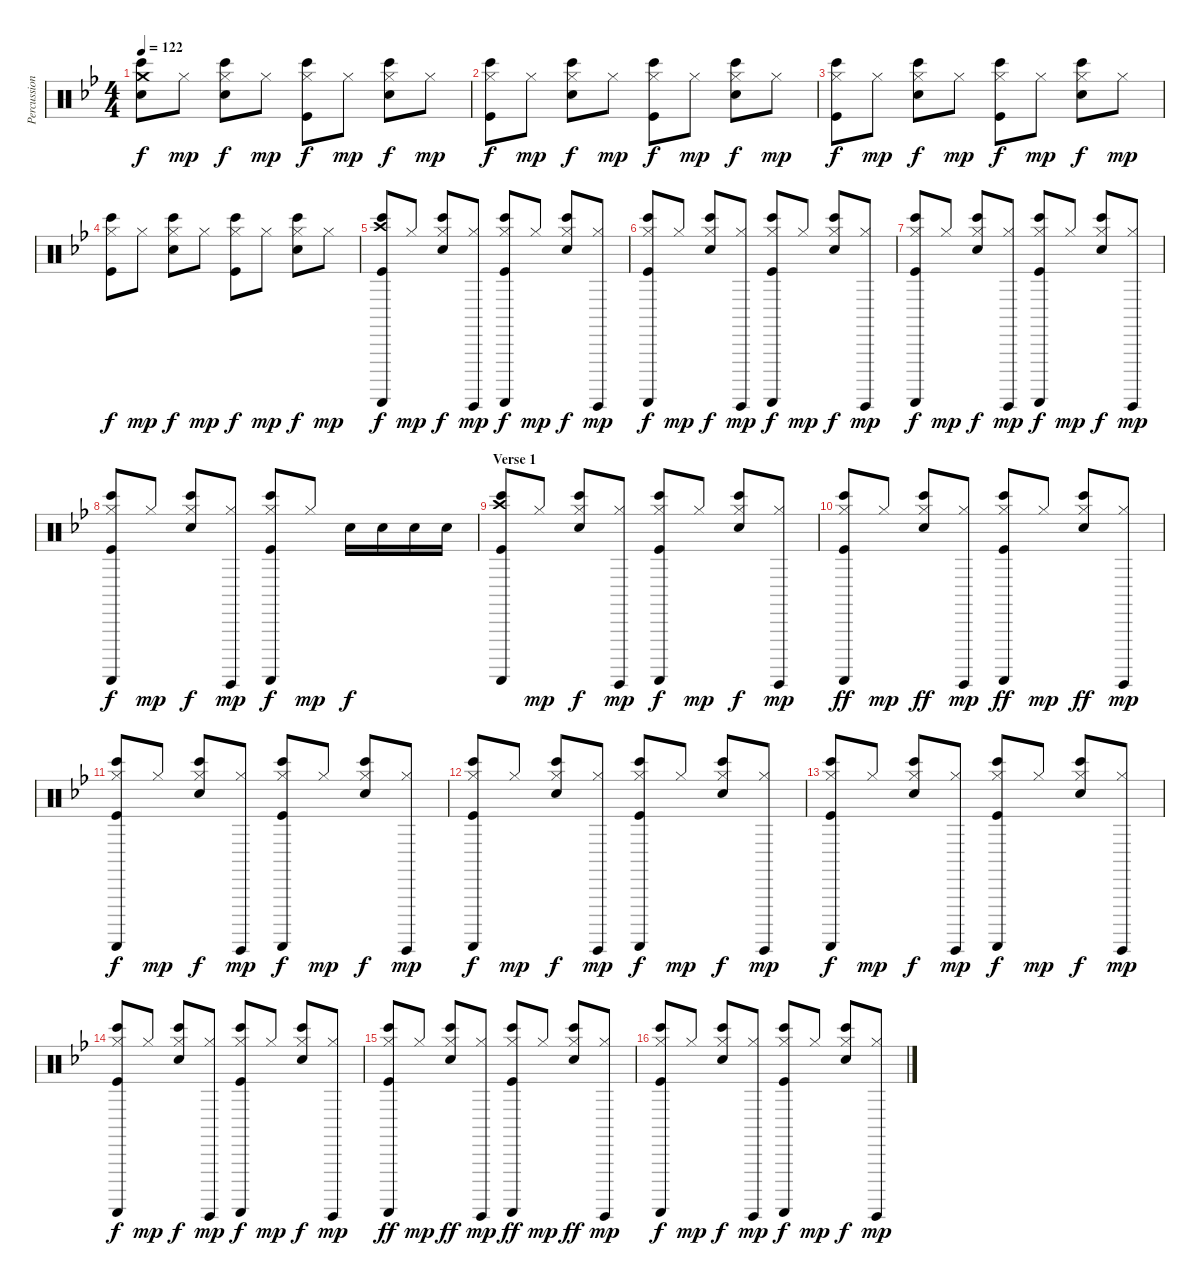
\track ("Percussions" "Percussion") {instrument percussion}
\staff {score}
\articulation defaults
\ts (4 4)
\tempo 122
\clef neutral
\ks bb
("Crash medium (hit)" "Bongo High (hit)" "Snare (hit) 2").8{dy f} "Hi-Hat (closed)".8{dy mp} ("Hi-Hat (closed)" "Bongo High (hit)" "Snare (hit) 2").8{dy f} "Hi-Hat (closed)".8{dy mp} ("Hi-Hat (closed)" "Bongo High (hit)" "Kick (hit)").8{dy f} "Hi-Hat (closed)".8{dy mp} ("Hi-Hat (closed)" "Bongo High (hit)" "Snare (hit) 2").8{dy f} "Hi-Hat (closed)".8{dy mp} |
("Hi-Hat (closed)" "Bongo High (hit)" "Kick (hit)").8{dy f} "Hi-Hat (closed)".8{dy mp} ("Hi-Hat (closed)" "Bongo High (hit)" "Snare (hit) 2").8{dy f} "Hi-Hat (closed)".8{dy mp} ("Hi-Hat (closed)" "Bongo High (hit)" "Kick (hit)").8{dy f} "Hi-Hat (closed)".8{dy mp} ("Hi-Hat (closed)" "Bongo High (hit)" "Snare (hit) 2").8{dy f} "Hi-Hat (closed)".8{dy mp} |
("Hi-Hat (closed)" "Bongo High (hit)" "Kick (hit)").8{dy f} "Hi-Hat (closed)".8{dy mp} ("Hi-Hat (closed)" "Bongo High (hit)" "Snare (hit) 2").8{dy f} "Hi-Hat (closed)".8{dy mp} ("Hi-Hat (closed)" "Bongo High (hit)" "Kick (hit)").8{dy f} "Hi-Hat (closed)".8{dy mp} ("Hi-Hat (closed)" "Bongo High (hit)" "Snare (hit) 2").8{dy f} "Hi-Hat (closed)".8{dy mp} |
("Hi-Hat (closed)" "Bongo High (hit)" "Kick (hit)").8{dy f} "Hi-Hat (closed)".8{dy mp} ("Hi-Hat (closed)" "Bongo High (hit)" "Snare (hit) 2").8{dy f} "Hi-Hat (closed)".8{dy mp} ("Hi-Hat (closed)" "Bongo High (hit)" "Kick (hit)").8{dy f} "Hi-Hat (closed)".8{dy mp} ("Hi-Hat (closed)" "Bongo High (hit)" "Snare (hit) 2").8{dy f} "Hi-Hat (closed)".8{dy mp} |
("Crash high (hit)" "Bongo High (hit)" "Guiro (scrap-return)" "Kick (hit)").8{dy f} "Hi-Hat (closed)".8{dy mp} ("Hi-Hat (closed)" "Bongo High (hit)" "Snare (hit) 2").8{dy f} ("Hi-Hat (closed)" "Guiro (hit)").8{dy mp} ("Hi-Hat (closed)" "Bongo High (hit)" "Guiro (scrap-return)" "Kick (hit)").8{dy f} "Hi-Hat (closed)".8{dy mp} ("Hi-Hat (closed)" "Bongo High (hit)" "Snare (hit) 2").8{dy f} ("Hi-Hat (closed)" "Guiro (hit)").8{dy mp} |
("Hi-Hat (closed)" "Bongo High (hit)" "Guiro (scrap-return)" "Kick (hit)").8{dy f} "Hi-Hat (closed)".8{dy mp} ("Hi-Hat (closed)" "Bongo High (hit)" "Snare (hit) 2").8{dy f} ("Hi-Hat (closed)" "Guiro (hit)").8{dy mp} ("Hi-Hat (closed)" "Bongo High (hit)" "Guiro (scrap-return)" "Kick (hit)").8{dy f} "Hi-Hat (closed)".8{dy mp} ("Hi-Hat (closed)" "Bongo High (hit)" "Snare (hit) 2").8{dy f} ("Hi-Hat (closed)" "Guiro (hit)").8{dy mp} |
("Hi-Hat (closed)" "Bongo High (hit)" "Guiro (scrap-return)" "Kick (hit)").8{dy f} "Hi-Hat (closed)".8{dy mp} ("Hi-Hat (closed)" "Bongo High (hit)" "Snare (hit) 2").8{dy f} ("Hi-Hat (closed)" "Guiro (hit)").8{dy mp} ("Hi-Hat (closed)" "Bongo High (hit)" "Guiro (scrap-return)" "Kick (hit)").8{dy f} "Hi-Hat (closed)".8{dy mp} ("Hi-Hat (closed)" "Bongo High (hit)" "Snare (hit) 2").8{dy f} ("Hi-Hat (closed)" "Guiro (hit)").8{dy mp} |
("Hi-Hat (closed)" "Bongo High (hit)" "Guiro (scrap-return)" "Kick (hit)").8{dy f} "Hi-Hat (closed)".8{dy mp} ("Hi-Hat (closed)" "Bongo High (hit)" "Snare (hit) 2").8{dy f} ("Hi-Hat (closed)" "Guiro (hit)").8{dy mp} ("Hi-Hat (closed)" "Bongo High (hit)" "Guiro (scrap-return)" "Kick (hit)").8{dy f} "Hi-Hat (closed)".8{dy mp} "Snare (hit) 2".16{dy f} "Snare (hit) 2".16 "Snare (hit) 2".16 "Snare (hit) 2".16 |
\section ("" "Verse 1")
("Crash high (hit)" "Bongo High (hit)" "Guiro (scrap-return)" "Kick (hit)").8 "Hi-Hat (closed)".8{dy mp} ("Hi-Hat (closed)" "Bongo High (hit)" "Snare (hit) 2").8{dy f} ("Hi-Hat (closed)" "Guiro (hit)").8{dy mp} ("Hi-Hat (closed)" "Bongo High (hit)" "Guiro (scrap-return)" "Kick (hit)").8{dy f} "Hi-Hat (closed)".8{dy mp} ("Hi-Hat (closed)" "Bongo High (hit)" "Snare (hit) 2").8{dy f} ("Hi-Hat (closed)" "Guiro (hit)").8{dy mp} |
("Hi-Hat (closed)" "Bongo High (hit)" "Guiro (scrap-return)" "Kick (hit)").8{dy ff} "Hi-Hat (closed)".8{dy mp} ("Hi-Hat (closed)" "Bongo High (hit)" "Snare (hit) 2").8{dy ff} ("Hi-Hat (closed)" "Guiro (hit)").8{dy mp} ("Hi-Hat (closed)" "Bongo High (hit)" "Guiro (scrap-return)" "Kick (hit)").8{dy ff} "Hi-Hat (closed)".8{dy mp} ("Hi-Hat (closed)" "Bongo High (hit)" "Snare (hit) 2").8{dy ff} ("Hi-Hat (closed)" "Guiro (hit)").8{dy mp} |
("Hi-Hat (closed)" "Bongo High (hit)" "Guiro (scrap-return)" "Kick (hit)").8{dy f} "Hi-Hat (closed)".8{dy mp} ("Hi-Hat (closed)" "Bongo High (hit)" "Snare (hit) 2").8{dy f} ("Hi-Hat (closed)" "Guiro (hit)").8{dy mp} ("Hi-Hat (closed)" "Bongo High (hit)" "Guiro (scrap-return)" "Kick (hit)").8{dy f} "Hi-Hat (closed)".8{dy mp} ("Hi-Hat (closed)" "Bongo High (hit)" "Snare (hit) 2").8{dy f} ("Hi-Hat (closed)" "Guiro (hit)").8{dy mp} |
("Hi-Hat (closed)" "Bongo High (hit)" "Guiro (scrap-return)" "Kick (hit)").8{dy f} "Hi-Hat (closed)".8{dy mp} ("Hi-Hat (closed)" "Bongo High (hit)" "Snare (hit) 2").8{dy f} ("Hi-Hat (closed)" "Guiro (hit)").8{dy mp} ("Hi-Hat (closed)" "Bongo High (hit)" "Guiro (scrap-return)" "Kick (hit)").8{dy f} "Hi-Hat (closed)".8{dy mp} ("Hi-Hat (closed)" "Bongo High (hit)" "Snare (hit) 2").8{dy f} ("Hi-Hat (closed)" "Guiro (hit)").8{dy mp} |
("Hi-Hat (closed)" "Bongo High (hit)" "Guiro (scrap-return)" "Kick (hit)").8{dy f} "Hi-Hat (closed)".8{dy mp} ("Hi-Hat (closed)" "Bongo High (hit)" "Snare (hit) 2").8{dy f} ("Hi-Hat (closed)" "Guiro (hit)").8{dy mp} ("Hi-Hat (closed)" "Bongo High (hit)" "Guiro (scrap-return)" "Kick (hit)").8{dy f} "Hi-Hat (closed)".8{dy mp} ("Hi-Hat (closed)" "Bongo High (hit)" "Snare (hit) 2").8{dy f} ("Hi-Hat (closed)" "Guiro (hit)").8{dy mp} |
("Hi-Hat (closed)" "Bongo High (hit)" "Guiro (scrap-return)" "Kick (hit)").8{dy f} "Hi-Hat (closed)".8{dy mp} ("Hi-Hat (closed)" "Bongo High (hit)" "Snare (hit) 2").8{dy f} ("Hi-Hat (closed)" "Guiro (hit)").8{dy mp} ("Hi-Hat (closed)" "Bongo High (hit)" "Guiro (scrap-return)" "Kick (hit)").8{dy f} "Hi-Hat (closed)".8{dy mp} ("Hi-Hat (closed)" "Bongo High (hit)" "Snare (hit) 2").8{dy f} ("Hi-Hat (closed)" "Guiro (hit)").8{dy mp} |
("Hi-Hat (closed)" "Bongo High (hit)" "Guiro (scrap-return)" "Kick (hit)").8{dy ff} "Hi-Hat (closed)".8{dy mp} ("Hi-Hat (closed)" "Bongo High (hit)" "Snare (hit) 2").8{dy ff} ("Hi-Hat (closed)" "Guiro (hit)").8{dy mp} ("Hi-Hat (closed)" "Bongo High (hit)" "Guiro (scrap-return)" "Kick (hit)").8{dy ff} "Hi-Hat (closed)".8{dy mp} ("Hi-Hat (closed)" "Bongo High (hit)" "Snare (hit) 2").8{dy ff} ("Hi-Hat (closed)" "Guiro (hit)").8{dy mp} |
("Hi-Hat (closed)" "Bongo High (hit)" "Guiro (scrap-return)" "Kick (hit)").8{dy f} "Hi-Hat (closed)".8{dy mp} ("Hi-Hat (closed)" "Bongo High (hit)" "Snare (hit) 2").8{dy f} ("Hi-Hat (closed)" "Guiro (hit)").8{dy mp} ("Hi-Hat (closed)" "Bongo High (hit)" "Guiro (scrap-return)" "Kick (hit)").8{dy f} "Hi-Hat (closed)".8{dy mp} ("Hi-Hat (closed)" "Bongo High (hit)" "Snare (hit) 2").8{dy f} ("Hi-Hat (closed)" "Guiro (hit)").8{dy mp}
